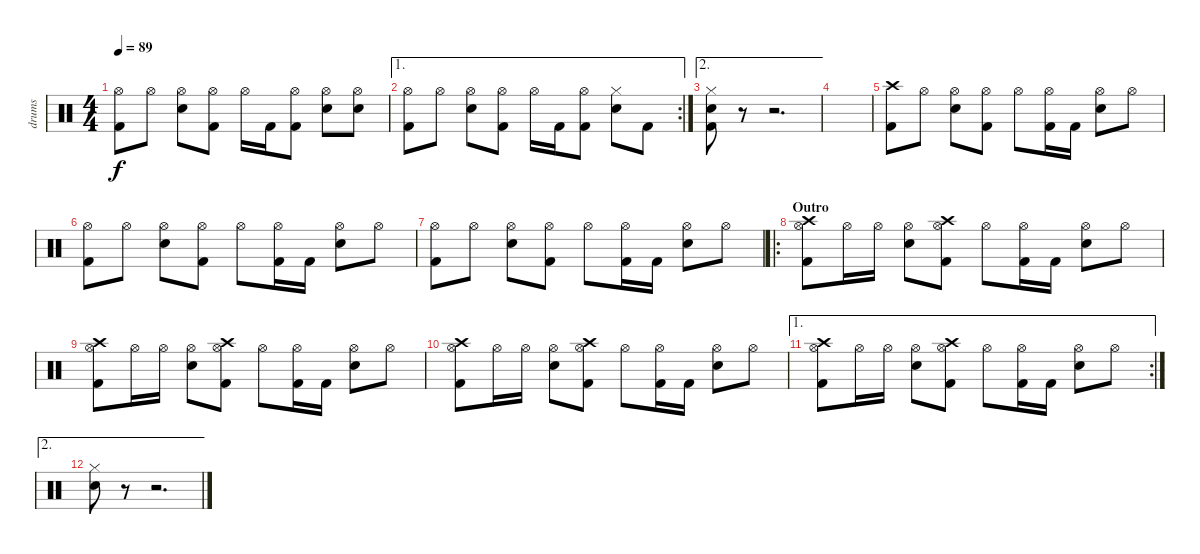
\track ("drums" "drums") {instrument percussion}
\staff {score}
\articulation defaults
\ts (4 4)
\tempo 89
\clef neutral
\ks c
("Hi-Hat (open)" "Kick (hit) 2").8{dy f} "Hi-Hat (open)".8 ("Hi-Hat (open)" "Electric Snare (hit)").8 ("Hi-Hat (open)" "Kick (hit) 2").8 "Hi-Hat (open)".16 "Kick (hit) 2".16 ("Hi-Hat (open)" "Kick (hit) 2").8 ("Hi-Hat (open)" "Electric Snare (hit)").8 ("Hi-Hat (open)" "Electric Snare (hit)").8 |
\ae 1
\rc 2
("Hi-Hat (open)" "Kick (hit) 2").8 "Hi-Hat (open)".8 ("Hi-Hat (open)" "Electric Snare (hit)").8 ("Hi-Hat (open)" "Kick (hit) 2").8 "Hi-Hat (open)".16 "Kick (hit) 2".16 ("Hi-Hat (open)" "Kick (hit) 2").8 ("Hi-Hat (closed)" "Electric Snare (hit)").8 "Kick (hit) 2".8 |
\ae 2
("Hi-Hat (closed)" "Electric Snare (hit)" "Kick (hit) 2").8 r.8 r.2{d} |
|
("Crash high (hit)" "Kick (hit) 2").8 "Hi-Hat (open)".8 ("Hi-Hat (open)" "Electric Snare (hit)").8 ("Hi-Hat (open)" "Kick (hit) 2").8 "Hi-Hat (open)".8 ("Hi-Hat (open)" "Kick (hit) 2").16 "Kick (hit) 2".16 ("Hi-Hat (open)" "Electric Snare (hit)").8 "Hi-Hat (open)".8 |
("Hi-Hat (open)" "Kick (hit) 2").8 "Hi-Hat (open)".8 ("Hi-Hat (open)" "Electric Snare (hit)").8 ("Hi-Hat (open)" "Kick (hit) 2").8 "Hi-Hat (open)".8 ("Hi-Hat (open)" "Kick (hit) 2").16 "Kick (hit) 2".16 ("Hi-Hat (open)" "Electric Snare (hit)").8 "Hi-Hat (open)".8 |
("Hi-Hat (open)" "Kick (hit) 2").8 "Hi-Hat (open)".8 ("Hi-Hat (open)" "Electric Snare (hit)").8 ("Hi-Hat (open)" "Kick (hit) 2").8 "Hi-Hat (open)".8 ("Hi-Hat (open)" "Kick (hit) 2").16 "Kick (hit) 2".16 ("Hi-Hat (open)" "Electric Snare (hit)").8 "Hi-Hat (open)".8 |
\ro
\section ("" "Outro")
("Crash high (hit)" "Hi-Hat (open)" "Kick (hit) 2").8 "Hi-Hat (open)".16 "Hi-Hat (open)".16 ("Hi-Hat (open)" "Electric Snare (hit)").8 ("Crash high (hit)" "Hi-Hat (open)" "Kick (hit) 2").8 "Hi-Hat (open)".8 ("Hi-Hat (open)" "Kick (hit) 2").16 "Kick (hit) 2".16 ("Hi-Hat (open)" "Electric Snare (hit)").8 "Hi-Hat (open)".8 |
("Crash high (hit)" "Hi-Hat (open)" "Kick (hit) 2").8 "Hi-Hat (open)".16 "Hi-Hat (open)".16 ("Hi-Hat (open)" "Electric Snare (hit)").8 ("Crash high (hit)" "Hi-Hat (open)" "Kick (hit) 2").8 "Hi-Hat (open)".8 ("Hi-Hat (open)" "Kick (hit) 2").16 "Kick (hit) 2".16 ("Hi-Hat (open)" "Electric Snare (hit)").8 "Hi-Hat (open)".8 |
("Crash high (hit)" "Hi-Hat (open)" "Kick (hit) 2").8 "Hi-Hat (open)".16 "Hi-Hat (open)".16 ("Hi-Hat (open)" "Electric Snare (hit)").8 ("Crash high (hit)" "Hi-Hat (open)" "Kick (hit) 2").8 "Hi-Hat (open)".8 ("Hi-Hat (open)" "Kick (hit) 2").16 "Kick (hit) 2".16 ("Hi-Hat (open)" "Electric Snare (hit)").8 "Hi-Hat (open)".8 |
\ae 1
\rc 2
("Crash high (hit)" "Hi-Hat (open)" "Kick (hit) 2").8 "Hi-Hat (open)".16 "Hi-Hat (open)".16 ("Hi-Hat (open)" "Electric Snare (hit)").8 ("Crash high (hit)" "Hi-Hat (open)" "Kick (hit) 2").8 "Hi-Hat (open)".8 ("Hi-Hat (open)" "Kick (hit) 2").16 "Kick (hit) 2".16 ("Hi-Hat (open)" "Electric Snare (hit)").8 "Hi-Hat (open)".8 |
\ae 2
("Hi-Hat (closed)" "Electric Snare (hit)").8 r.8 r.2{d}
